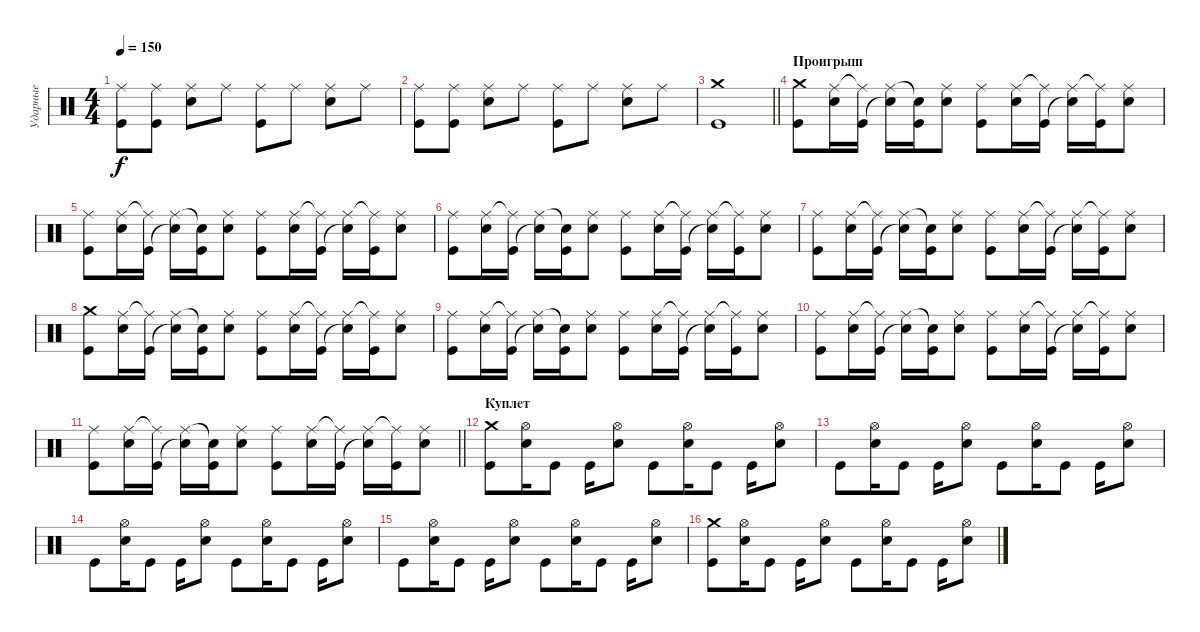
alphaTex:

\track ("Ударные" "Ударные") {instrument percussion}
\staff {score}
\articulation defaults
\ts (4 4)
\tempo 150
\clef neutral
\ks c
("Ride (middle)" "Kick (hit)").8{dy f} ("Ride (middle)" "Kick (hit)").8 ("Ride (middle)" "Electric Snare (hit)").8 "Ride (middle)".8 ("Ride (middle)" "Kick (hit)").8 "Ride (middle)".8 ("Ride (middle)" "Electric Snare (hit)").8 "Ride (middle)".8 |
("Ride (middle)" "Kick (hit)").8 ("Ride (middle)" "Kick (hit)").8 ("Ride (middle)" "Electric Snare (hit)").8 "Ride (middle)".8 ("Ride (middle)" "Kick (hit)").8 "Ride (middle)".8 ("Ride (middle)" "Electric Snare (hit)").8 "Ride (middle)".8 |
\barLineRight lightlight
("Crash medium (hit)" "Kick (hit)").1 |
\section ("" "Проигрыш")
("Crash medium (hit)" "Kick (hit)").8 ("Ride (middle)" "Electric Snare (hit)").16 ("Ride (middle)"{t} "Kick (hit)").16 ("Ride (middle)" "Snare (hit)"{t}).16 ("Snare (hit)"{t} "Kick (hit)").16 ("Ride (middle)" "Electric Snare (hit)").8 ("Ride (middle)" "Kick (hit)").8 ("Ride (middle)" "Electric Snare (hit)").16 ("Ride (middle)"{t} "Kick (hit)").16 ("Ride (middle)" "Snare (hit)"{t}).16 ("Ride (middle)"{t} "Kick (hit)").16 ("Ride (middle)" "Electric Snare (hit)").8 |
("Ride (middle)" "Kick (hit)").8 ("Ride (middle)" "Electric Snare (hit)").16 ("Ride (middle)"{t} "Kick (hit)").16 ("Ride (middle)" "Snare (hit)"{t}).16 ("Snare (hit)"{t} "Kick (hit)").16 ("Ride (middle)" "Electric Snare (hit)").8 ("Ride (middle)" "Kick (hit)").8 ("Ride (middle)" "Electric Snare (hit)").16 ("Ride (middle)"{t} "Kick (hit)").16 ("Ride (middle)" "Snare (hit)"{t}).16 ("Ride (middle)"{t} "Kick (hit)").16 ("Ride (middle)" "Electric Snare (hit)").8 |
("Ride (middle)" "Kick (hit)").8 ("Ride (middle)" "Electric Snare (hit)").16 ("Ride (middle)"{t} "Kick (hit)").16 ("Ride (middle)" "Snare (hit)"{t}).16 ("Snare (hit)"{t} "Kick (hit)").16 ("Ride (middle)" "Electric Snare (hit)").8 ("Ride (middle)" "Kick (hit)").8 ("Ride (middle)" "Electric Snare (hit)").16 ("Ride (middle)"{t} "Kick (hit)").16 ("Ride (middle)" "Snare (hit)"{t}).16 ("Ride (middle)"{t} "Kick (hit)").16 ("Ride (middle)" "Electric Snare (hit)").8 |
("Ride (middle)" "Kick (hit)").8 ("Ride (middle)" "Electric Snare (hit)").16 ("Ride (middle)"{t} "Kick (hit)").16 ("Ride (middle)" "Snare (hit)"{t}).16 ("Snare (hit)"{t} "Kick (hit)").16 ("Ride (middle)" "Electric Snare (hit)").8 ("Ride (middle)" "Kick (hit)").8 ("Ride (middle)" "Electric Snare (hit)").16 ("Ride (middle)"{t} "Kick (hit)").16 ("Ride (middle)" "Snare (hit)"{t}).16 ("Ride (middle)"{t} "Kick (hit)").16 ("Ride (middle)" "Electric Snare (hit)").8 |
("Crash medium (hit)" "Kick (hit)").8 ("Ride (middle)" "Electric Snare (hit)").16 ("Ride (middle)"{t} "Kick (hit)").16 ("Ride (middle)" "Snare (hit)"{t}).16 ("Snare (hit)"{t} "Kick (hit)").16 ("Ride (middle)" "Electric Snare (hit)").8 ("Ride (middle)" "Kick (hit)").8 ("Ride (middle)" "Electric Snare (hit)").16 ("Ride (middle)"{t} "Kick (hit)").16 ("Ride (middle)" "Snare (hit)"{t}).16 ("Ride (middle)"{t} "Kick (hit)").16 ("Ride (middle)" "Electric Snare (hit)").8 |
("Ride (middle)" "Kick (hit)").8 ("Ride (middle)" "Electric Snare (hit)").16 ("Ride (middle)"{t} "Kick (hit)").16 ("Ride (middle)" "Snare (hit)"{t}).16 ("Snare (hit)"{t} "Kick (hit)").16 ("Ride (middle)" "Electric Snare (hit)").8 ("Ride (middle)" "Kick (hit)").8 ("Ride (middle)" "Electric Snare (hit)").16 ("Ride (middle)"{t} "Kick (hit)").16 ("Ride (middle)" "Snare (hit)"{t}).16 ("Ride (middle)"{t} "Kick (hit)").16 ("Ride (middle)" "Electric Snare (hit)").8 |
("Ride (middle)" "Kick (hit)").8 ("Ride (middle)" "Electric Snare (hit)").16 ("Ride (middle)"{t} "Kick (hit)").16 ("Ride (middle)" "Snare (hit)"{t}).16 ("Snare (hit)"{t} "Kick (hit)").16 ("Ride (middle)" "Electric Snare (hit)").8 ("Ride (middle)" "Kick (hit)").8 ("Ride (middle)" "Electric Snare (hit)").16 ("Ride (middle)"{t} "Kick (hit)").16 ("Ride (middle)" "Snare (hit)"{t}).16 ("Ride (middle)"{t} "Kick (hit)").16 ("Ride (middle)" "Electric Snare (hit)").8 |
\barLineRight lightlight
("Ride (middle)" "Kick (hit)").8 ("Ride (middle)" "Electric Snare (hit)").16 ("Ride (middle)"{t} "Kick (hit)").16 ("Ride (middle)" "Snare (hit)"{t}).16 ("Snare (hit)"{t} "Kick (hit)").16 ("Ride (middle)" "Electric Snare (hit)").8 ("Ride (middle)" "Kick (hit)").8 ("Ride (middle)" "Electric Snare (hit)").16 ("Ride (middle)"{t} "Kick (hit)").16 ("Ride (middle)" "Snare (hit)"{t}).16 ("Ride (middle)"{t} "Kick (hit)").16 ("Ride (middle)" "Electric Snare (hit)").8 |
\section ("" "Куплет")
("Crash medium (hit)" "Kick (hit)").8 ("Hi-Hat (open)" "Electric Snare (hit)").16 "Kick (hit)".8 "Kick (hit)".16 ("Hi-Hat (open)" "Electric Snare (hit)").8 "Kick (hit)".8 ("Hi-Hat (open)" "Electric Snare (hit)").16 "Kick (hit)".8 "Kick (hit)".16 ("Hi-Hat (open)" "Electric Snare (hit)").8 |
"Kick (hit)".8 ("Hi-Hat (open)" "Electric Snare (hit)").16 "Kick (hit)".8 "Kick (hit)".16 ("Hi-Hat (open)" "Electric Snare (hit)").8 "Kick (hit)".8 ("Hi-Hat (open)" "Electric Snare (hit)").16 "Kick (hit)".8 "Kick (hit)".16 ("Hi-Hat (open)" "Electric Snare (hit)").8 |
"Kick (hit)".8 ("Hi-Hat (open)" "Electric Snare (hit)").16 "Kick (hit)".8 "Kick (hit)".16 ("Hi-Hat (open)" "Electric Snare (hit)").8 "Kick (hit)".8 ("Hi-Hat (open)" "Electric Snare (hit)").16 "Kick (hit)".8 "Kick (hit)".16 ("Hi-Hat (open)" "Electric Snare (hit)").8 |
"Kick (hit)".8 ("Hi-Hat (open)" "Electric Snare (hit)").16 "Kick (hit)".8 "Kick (hit)".16 ("Hi-Hat (open)" "Electric Snare (hit)").8 "Kick (hit)".8 ("Hi-Hat (open)" "Electric Snare (hit)").16 "Kick (hit)".8 "Kick (hit)".16 ("Hi-Hat (open)" "Electric Snare (hit)").8 |
("Crash medium (hit)" "Kick (hit)").8 ("Hi-Hat (open)" "Electric Snare (hit)").16 "Kick (hit)".8 "Kick (hit)".16 ("Hi-Hat (open)" "Electric Snare (hit)").8 "Kick (hit)".8 ("Hi-Hat (open)" "Electric Snare (hit)").16 "Kick (hit)".8 "Kick (hit)".16 ("Hi-Hat (open)" "Electric Snare (hit)").8
